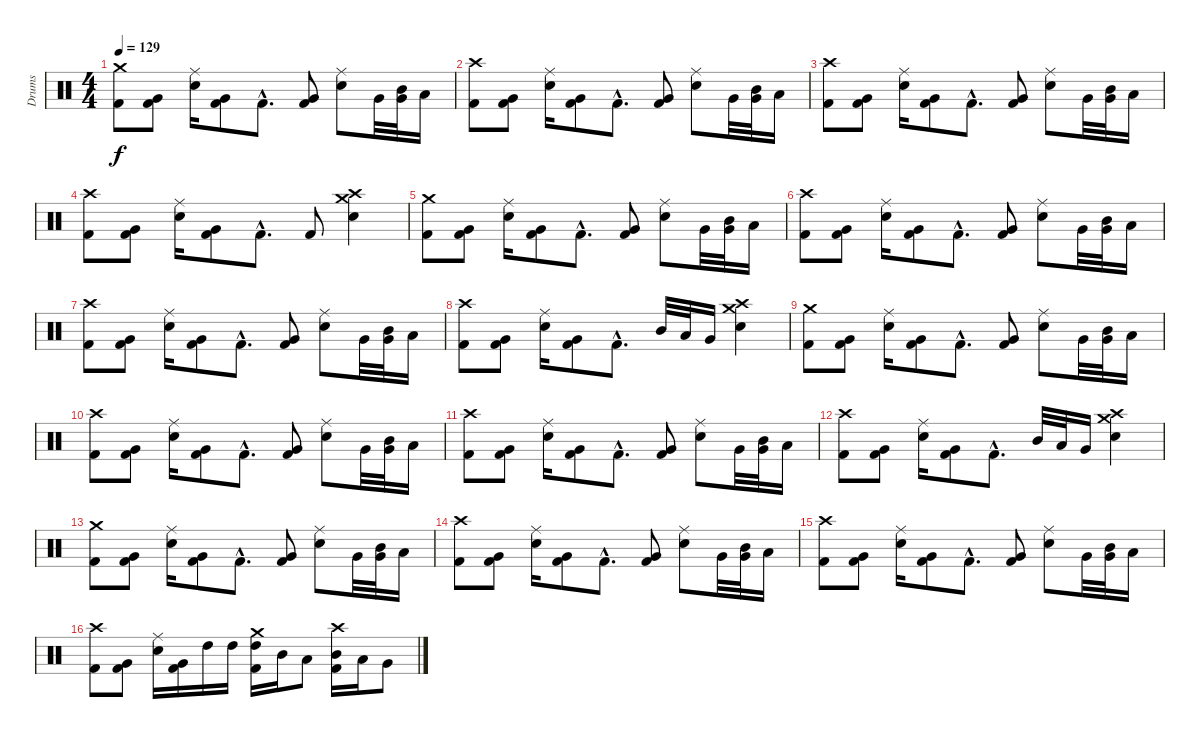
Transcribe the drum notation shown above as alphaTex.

\track ("Drums" "Drums") {instrument percussion}
\staff {score}
\articulation defaults
\ts (4 4)
\tempo 129
\clef neutral
\ks c
("Crash medium (hit)" "Kick (hit) 2").8{dy f} ("Very Low Tom (hit)" "Kick (hit) 2").8 ("Ride (middle)" "Snare (hit) 2").16 ("Very Low Tom (hit)" "Kick (hit) 2").8 "Kick (hit) 2"{hac}.8{d} ("Very Low Tom (hit)" "Kick (hit) 2").8 ("Ride (middle)" "Snare (hit) 2").8 "Very Low Tom (hit)".32 ("Very Low Tom (hit)" "Mid Tom (hit)").32 "Low Tom (hit)".16 |
("Crash high (hit)" "Kick (hit) 2").8 ("Very Low Tom (hit)" "Kick (hit) 2").8 ("Ride (middle)" "Snare (hit) 2").16 ("Very Low Tom (hit)" "Kick (hit) 2").8 "Kick (hit) 2"{hac}.8{d} ("Very Low Tom (hit)" "Kick (hit) 2").8 ("Ride (middle)" "Snare (hit) 2").8 "Very Low Tom (hit)".32 ("Very Low Tom (hit)" "Mid Tom (hit)").32 "Low Tom (hit)".16 |
("Crash high (hit)" "Kick (hit) 2").8 ("Very Low Tom (hit)" "Kick (hit) 2").8 ("Ride (middle)" "Snare (hit) 2").16 ("Very Low Tom (hit)" "Kick (hit) 2").8 "Kick (hit) 2"{hac}.8{d} ("Very Low Tom (hit)" "Kick (hit) 2").8 ("Ride (middle)" "Snare (hit) 2").8 "Very Low Tom (hit)".32 ("Very Low Tom (hit)" "Mid Tom (hit)").32 "Low Tom (hit)".16 |
("Crash high (hit)" "Kick (hit) 2").8 ("Very Low Tom (hit)" "Kick (hit) 2").8 ("Ride (middle)" "Snare (hit) 2").16 ("Very Low Tom (hit)" "Kick (hit) 2").8 "Kick (hit) 2"{hac}.8{d} "Kick (hit) 2".8 ("Crash medium (hit)" "Crash high (hit)" "Snare (hit) 2").4 |
("Crash medium (hit)" "Kick (hit) 2").8 ("Very Low Tom (hit)" "Kick (hit) 2").8 ("Ride (middle)" "Snare (hit) 2").16 ("Very Low Tom (hit)" "Kick (hit) 2").8 "Kick (hit) 2"{hac}.8{d} ("Very Low Tom (hit)" "Kick (hit) 2").8 ("Ride (middle)" "Snare (hit) 2").8 "Very Low Tom (hit)".32 ("Very Low Tom (hit)" "Mid Tom (hit)").32 "Low Tom (hit)".16 |
("Crash high (hit)" "Kick (hit) 2").8 ("Very Low Tom (hit)" "Kick (hit) 2").8 ("Ride (middle)" "Snare (hit) 2").16 ("Very Low Tom (hit)" "Kick (hit) 2").8 "Kick (hit) 2"{hac}.8{d} ("Very Low Tom (hit)" "Kick (hit) 2").8 ("Ride (middle)" "Snare (hit) 2").8 "Very Low Tom (hit)".32 ("Very Low Tom (hit)" "Mid Tom (hit)").32 "Low Tom (hit)".16 |
("Crash high (hit)" "Kick (hit) 2").8 ("Very Low Tom (hit)" "Kick (hit) 2").8 ("Ride (middle)" "Snare (hit) 2").16 ("Very Low Tom (hit)" "Kick (hit) 2").8 "Kick (hit) 2"{hac}.8{d} ("Very Low Tom (hit)" "Kick (hit) 2").8 ("Ride (middle)" "Snare (hit) 2").8 "Very Low Tom (hit)".32 ("Very Low Tom (hit)" "Mid Tom (hit)").32 "Low Tom (hit)".16 |
("Crash high (hit)" "Kick (hit) 2").8 ("Very Low Tom (hit)" "Kick (hit) 2").8 ("Ride (middle)" "Snare (hit) 2").16 ("Very Low Tom (hit)" "Kick (hit) 2").8 "Kick (hit) 2"{hac}.8{d} "Mid Tom (hit)".32 "Low Tom (hit)".32 "Very Low Tom (hit)".16 ("Crash medium (hit)" "Crash high (hit)" "Snare (hit) 2").4 |
("Crash medium (hit)" "Kick (hit) 2").8 ("Very Low Tom (hit)" "Kick (hit) 2").8 ("Ride (middle)" "Snare (hit) 2").16 ("Very Low Tom (hit)" "Kick (hit) 2").8 "Kick (hit) 2"{hac}.8{d} ("Very Low Tom (hit)" "Kick (hit) 2").8 ("Ride (middle)" "Snare (hit) 2").8 "Very Low Tom (hit)".32 ("Very Low Tom (hit)" "Mid Tom (hit)").32 "Low Tom (hit)".16 |
("Crash high (hit)" "Kick (hit) 2").8 ("Very Low Tom (hit)" "Kick (hit) 2").8 ("Ride (middle)" "Snare (hit) 2").16 ("Very Low Tom (hit)" "Kick (hit) 2").8 "Kick (hit) 2"{hac}.8{d} ("Very Low Tom (hit)" "Kick (hit) 2").8 ("Ride (middle)" "Snare (hit) 2").8 "Very Low Tom (hit)".32 ("Very Low Tom (hit)" "Mid Tom (hit)").32 "Low Tom (hit)".16 |
("Crash high (hit)" "Kick (hit) 2").8 ("Very Low Tom (hit)" "Kick (hit) 2").8 ("Ride (middle)" "Snare (hit) 2").16 ("Very Low Tom (hit)" "Kick (hit) 2").8 "Kick (hit) 2"{hac}.8{d} ("Very Low Tom (hit)" "Kick (hit) 2").8 ("Ride (middle)" "Snare (hit) 2").8 "Very Low Tom (hit)".32 ("Very Low Tom (hit)" "Mid Tom (hit)").32 "Low Tom (hit)".16 |
("Crash high (hit)" "Kick (hit) 2").8 ("Very Low Tom (hit)" "Kick (hit) 2").8 ("Ride (middle)" "Snare (hit) 2").16 ("Very Low Tom (hit)" "Kick (hit) 2").8 "Kick (hit) 2"{hac}.8{d} "Mid Tom (hit)".32 "Low Tom (hit)".32 "Very Low Tom (hit)".16 ("Crash medium (hit)" "Crash high (hit)" "Snare (hit) 2").4 |
("Crash medium (hit)" "Kick (hit) 2").8 ("Very Low Tom (hit)" "Kick (hit) 2").8 ("Ride (middle)" "Snare (hit) 2").16 ("Very Low Tom (hit)" "Kick (hit) 2").8 "Kick (hit) 2"{hac}.8{d} ("Very Low Tom (hit)" "Kick (hit) 2").8 ("Ride (middle)" "Snare (hit) 2").8 "Very Low Tom (hit)".32 ("Very Low Tom (hit)" "Mid Tom (hit)").32 "Low Tom (hit)".16 |
("Crash high (hit)" "Kick (hit) 2").8 ("Very Low Tom (hit)" "Kick (hit) 2").8 ("Ride (middle)" "Snare (hit) 2").16 ("Very Low Tom (hit)" "Kick (hit) 2").8 "Kick (hit) 2"{hac}.8{d} ("Very Low Tom (hit)" "Kick (hit) 2").8 ("Ride (middle)" "Snare (hit) 2").8 "Very Low Tom (hit)".32 ("Very Low Tom (hit)" "Mid Tom (hit)").32 "Low Tom (hit)".16 |
("Crash high (hit)" "Kick (hit) 2").8 ("Very Low Tom (hit)" "Kick (hit) 2").8 ("Ride (middle)" "Snare (hit) 2").16 ("Very Low Tom (hit)" "Kick (hit) 2").8 "Kick (hit) 2"{hac}.8{d} ("Very Low Tom (hit)" "Kick (hit) 2").8 ("Ride (middle)" "Snare (hit) 2").8 "Very Low Tom (hit)".32 ("Very Low Tom (hit)" "Mid Tom (hit)").32 "Low Tom (hit)".16 |
("Crash high (hit)" "Kick (hit) 2").8 ("Very Low Tom (hit)" "Kick (hit) 2").8 ("Ride (middle)" "Snare (hit) 2").16 ("Very Low Tom (hit)" "Kick (hit) 2").16 "High Tom (hit)".16 "High Tom (hit)".16 ("Crash medium (hit)" "High Tom (hit)" "Kick (hit) 2").16 "Mid Tom (hit)".16 "Low Tom (hit)".8 ("Crash high (hit)" "Mid Tom (hit)" "Kick (hit) 2").16 "Low Tom (hit)".16 "Very Low Tom (hit)".8
